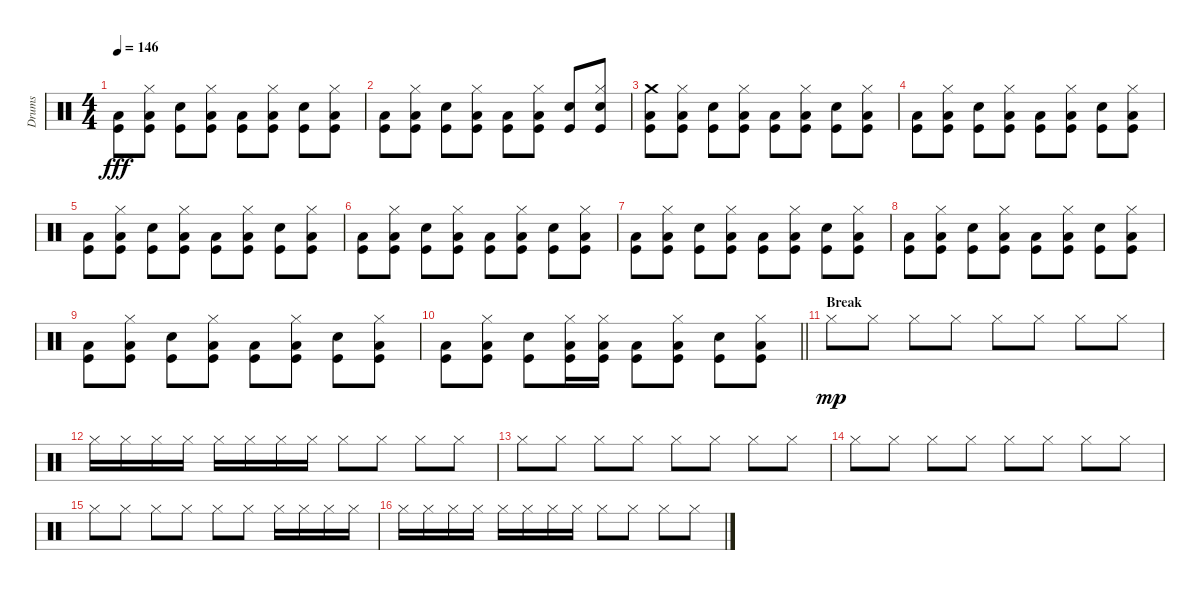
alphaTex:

\track ("Drums" "Drums") {instrument percussion}
\staff {score}
\articulation defaults
\ts (4 4)
\tempo 146
\clef neutral
\ks c
("Low Floor Tom (hit)" "Kick (hit)").8{dy fff} ("Hi-Hat (closed)" "Low Floor Tom (hit)" "Kick (hit)").8 ("Electric Snare (hit)" "Kick (hit)").8 ("Hi-Hat (closed)" "Low Floor Tom (hit)" "Kick (hit)").8 ("Low Floor Tom (hit)" "Kick (hit)").8 ("Hi-Hat (closed)" "Low Floor Tom (hit)" "Kick (hit)").8 ("Electric Snare (hit)" "Kick (hit)").8 ("Hi-Hat (closed)" "Low Floor Tom (hit)" "Kick (hit)").8 |
("Low Floor Tom (hit)" "Kick (hit)").8 ("Hi-Hat (closed)" "Low Floor Tom (hit)" "Kick (hit)").8 ("Electric Snare (hit)" "Kick (hit)").8 ("Hi-Hat (closed)" "Low Floor Tom (hit)" "Kick (hit)").8 ("Low Floor Tom (hit)" "Kick (hit)").8 ("Hi-Hat (closed)" "Low Floor Tom (hit)" "Kick (hit)").8 ("Electric Snare (hit)" "Kick (hit)").8 ("Hi-Hat (closed)" "Electric Snare (hit)" "Kick (hit)").8 |
("Crash medium (hit)" "Low Floor Tom (hit)" "Kick (hit)").8 ("Hi-Hat (closed)" "Low Floor Tom (hit)" "Kick (hit)").8 ("Electric Snare (hit)" "Kick (hit)").8 ("Hi-Hat (closed)" "Low Floor Tom (hit)" "Kick (hit)").8 ("Low Floor Tom (hit)" "Kick (hit)").8 ("Hi-Hat (closed)" "Low Floor Tom (hit)" "Kick (hit)").8 ("Electric Snare (hit)" "Kick (hit)").8 ("Hi-Hat (closed)" "Low Floor Tom (hit)" "Kick (hit)").8 |
("Low Floor Tom (hit)" "Kick (hit)").8 ("Hi-Hat (closed)" "Low Floor Tom (hit)" "Kick (hit)").8 ("Electric Snare (hit)" "Kick (hit)").8 ("Hi-Hat (closed)" "Low Floor Tom (hit)" "Kick (hit)").8 ("Low Floor Tom (hit)" "Kick (hit)").8 ("Hi-Hat (closed)" "Low Floor Tom (hit)" "Kick (hit)").8 ("Electric Snare (hit)" "Kick (hit)").8 ("Hi-Hat (closed)" "Low Floor Tom (hit)" "Kick (hit)").8 |
("Low Floor Tom (hit)" "Kick (hit)").8 ("Hi-Hat (closed)" "Low Floor Tom (hit)" "Kick (hit)").8 ("Electric Snare (hit)" "Kick (hit)").8 ("Hi-Hat (closed)" "Low Floor Tom (hit)" "Kick (hit)").8 ("Low Floor Tom (hit)" "Kick (hit)").8 ("Hi-Hat (closed)" "Low Floor Tom (hit)" "Kick (hit)").8 ("Electric Snare (hit)" "Kick (hit)").8 ("Hi-Hat (closed)" "Low Floor Tom (hit)" "Kick (hit)").8 |
("Low Floor Tom (hit)" "Kick (hit)").8 ("Hi-Hat (closed)" "Low Floor Tom (hit)" "Kick (hit)").8 ("Electric Snare (hit)" "Kick (hit)").8 ("Hi-Hat (closed)" "Low Floor Tom (hit)" "Kick (hit)").8 ("Low Floor Tom (hit)" "Kick (hit)").8 ("Hi-Hat (closed)" "Low Floor Tom (hit)" "Kick (hit)").8 ("Electric Snare (hit)" "Kick (hit)").8 ("Hi-Hat (closed)" "Low Floor Tom (hit)" "Kick (hit)").8 |
("Low Floor Tom (hit)" "Kick (hit)").8 ("Hi-Hat (closed)" "Low Floor Tom (hit)" "Kick (hit)").8 ("Electric Snare (hit)" "Kick (hit)").8 ("Hi-Hat (closed)" "Low Floor Tom (hit)" "Kick (hit)").8 ("Low Floor Tom (hit)" "Kick (hit)").8 ("Hi-Hat (closed)" "Low Floor Tom (hit)" "Kick (hit)").8 ("Electric Snare (hit)" "Kick (hit)").8 ("Hi-Hat (closed)" "Low Floor Tom (hit)" "Kick (hit)").8 |
("Low Floor Tom (hit)" "Kick (hit)").8 ("Hi-Hat (closed)" "Low Floor Tom (hit)" "Kick (hit)").8 ("Electric Snare (hit)" "Kick (hit)").8 ("Hi-Hat (closed)" "Low Floor Tom (hit)" "Kick (hit)").8 ("Low Floor Tom (hit)" "Kick (hit)").8 ("Hi-Hat (closed)" "Low Floor Tom (hit)" "Kick (hit)").8 ("Electric Snare (hit)" "Kick (hit)").8 ("Hi-Hat (closed)" "Low Floor Tom (hit)" "Kick (hit)").8 |
("Low Floor Tom (hit)" "Kick (hit)").8 ("Hi-Hat (closed)" "Low Floor Tom (hit)" "Kick (hit)").8 ("Electric Snare (hit)" "Kick (hit)").8 ("Hi-Hat (closed)" "Low Floor Tom (hit)" "Kick (hit)").8 ("Low Floor Tom (hit)" "Kick (hit)").8 ("Hi-Hat (closed)" "Low Floor Tom (hit)" "Kick (hit)").8 ("Electric Snare (hit)" "Kick (hit)").8 ("Hi-Hat (closed)" "Low Floor Tom (hit)" "Kick (hit)").8 |
\barLineRight lightlight
("Low Floor Tom (hit)" "Kick (hit)").8 ("Hi-Hat (closed)" "Low Floor Tom (hit)" "Kick (hit)").8 ("Electric Snare (hit)" "Kick (hit)").8 ("Hi-Hat (closed)" "Low Floor Tom (hit)" "Kick (hit)").16 ("Hi-Hat (closed)" "Low Floor Tom (hit)" "Kick (hit)").16 ("Low Floor Tom (hit)" "Kick (hit)").8 ("Hi-Hat (closed)" "Low Floor Tom (hit)" "Kick (hit)").8 ("Electric Snare (hit)" "Kick (hit)").8 ("Hi-Hat (closed)" "Low Floor Tom (hit)" "Kick (hit)").8 |
\section ("" "Break")
"Hi-Hat (closed)".8{dy mp} "Hi-Hat (closed)".8 "Hi-Hat (closed)".8 "Hi-Hat (closed)".8 "Hi-Hat (closed)".8 "Hi-Hat (closed)".8 "Hi-Hat (closed)".8 "Hi-Hat (closed)".8 |
"Hi-Hat (closed)".16 "Hi-Hat (closed)".16 "Hi-Hat (closed)".16 "Hi-Hat (closed)".16 "Hi-Hat (closed)".16 "Hi-Hat (closed)".16 "Hi-Hat (closed)".16 "Hi-Hat (closed)".16 "Hi-Hat (closed)".8 "Hi-Hat (closed)".8 "Hi-Hat (closed)".8 "Hi-Hat (closed)".8 |
"Hi-Hat (closed)".8 "Hi-Hat (closed)".8 "Hi-Hat (closed)".8 "Hi-Hat (closed)".8 "Hi-Hat (closed)".8 "Hi-Hat (closed)".8 "Hi-Hat (closed)".8 "Hi-Hat (closed)".8 |
"Hi-Hat (closed)".8 "Hi-Hat (closed)".8 "Hi-Hat (closed)".8 "Hi-Hat (closed)".8 "Hi-Hat (closed)".8 "Hi-Hat (closed)".8 "Hi-Hat (closed)".8 "Hi-Hat (closed)".8 |
"Hi-Hat (closed)".8 "Hi-Hat (closed)".8 "Hi-Hat (closed)".8 "Hi-Hat (closed)".8 "Hi-Hat (closed)".8 "Hi-Hat (closed)".8 "Hi-Hat (closed)".16 "Hi-Hat (closed)".16 "Hi-Hat (closed)".16 "Hi-Hat (closed)".16 |
"Hi-Hat (closed)".16 "Hi-Hat (closed)".16 "Hi-Hat (closed)".16 "Hi-Hat (closed)".16 "Hi-Hat (closed)".16 "Hi-Hat (closed)".16 "Hi-Hat (closed)".16 "Hi-Hat (closed)".16 "Hi-Hat (closed)".8 "Hi-Hat (closed)".8 "Hi-Hat (closed)".8 "Hi-Hat (closed)".8
